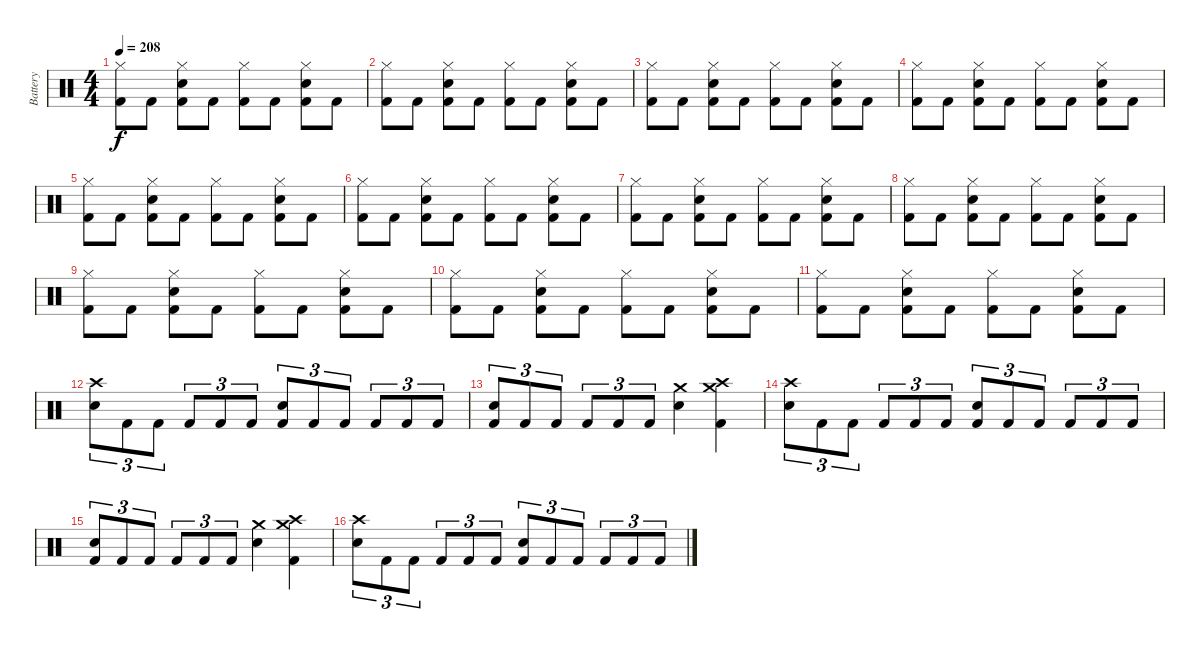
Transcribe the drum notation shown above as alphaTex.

\track ("Battery" "Battery") {instrument percussion}
\staff {score}
\articulation defaults
\ts (4 4)
\tempo 208
\clef neutral
\ks c
("Hi-Hat (closed)" "Kick (hit) 2").8{dy f} "Kick (hit) 2".8 ("Hi-Hat (closed)" "Electric Snare (hit)" "Kick (hit) 2").8 "Kick (hit) 2".8 ("Hi-Hat (closed)" "Kick (hit) 2").8 "Kick (hit) 2".8 ("Hi-Hat (closed)" "Electric Snare (hit)" "Kick (hit) 2").8 "Kick (hit) 2".8 |
("Hi-Hat (closed)" "Kick (hit) 2").8 "Kick (hit) 2".8 ("Hi-Hat (closed)" "Electric Snare (hit)" "Kick (hit) 2").8 "Kick (hit) 2".8 ("Hi-Hat (closed)" "Kick (hit) 2").8 "Kick (hit) 2".8 ("Hi-Hat (closed)" "Electric Snare (hit)" "Kick (hit) 2").8 "Kick (hit) 2".8 |
("Hi-Hat (closed)" "Kick (hit) 2").8 "Kick (hit) 2".8 ("Hi-Hat (closed)" "Electric Snare (hit)" "Kick (hit) 2").8 "Kick (hit) 2".8 ("Hi-Hat (closed)" "Kick (hit) 2").8 "Kick (hit) 2".8 ("Hi-Hat (closed)" "Electric Snare (hit)" "Kick (hit) 2").8 "Kick (hit) 2".8 |
("Hi-Hat (closed)" "Kick (hit) 2").8 "Kick (hit) 2".8 ("Hi-Hat (closed)" "Electric Snare (hit)" "Kick (hit) 2").8 "Kick (hit) 2".8 ("Hi-Hat (closed)" "Kick (hit) 2").8 "Kick (hit) 2".8 ("Hi-Hat (closed)" "Electric Snare (hit)" "Kick (hit) 2").8 "Kick (hit) 2".8 |
("Hi-Hat (closed)" "Kick (hit) 2").8 "Kick (hit) 2".8 ("Hi-Hat (closed)" "Electric Snare (hit)" "Kick (hit) 2").8 "Kick (hit) 2".8 ("Hi-Hat (closed)" "Kick (hit) 2").8 "Kick (hit) 2".8 ("Hi-Hat (closed)" "Electric Snare (hit)" "Kick (hit) 2").8 "Kick (hit) 2".8 |
("Hi-Hat (closed)" "Kick (hit) 2").8 "Kick (hit) 2".8 ("Hi-Hat (closed)" "Electric Snare (hit)" "Kick (hit) 2").8 "Kick (hit) 2".8 ("Hi-Hat (closed)" "Kick (hit) 2").8 "Kick (hit) 2".8 ("Hi-Hat (closed)" "Electric Snare (hit)" "Kick (hit) 2").8 "Kick (hit) 2".8 |
("Hi-Hat (closed)" "Kick (hit) 2").8 "Kick (hit) 2".8 ("Hi-Hat (closed)" "Electric Snare (hit)" "Kick (hit) 2").8 "Kick (hit) 2".8 ("Hi-Hat (closed)" "Kick (hit) 2").8 "Kick (hit) 2".8 ("Hi-Hat (closed)" "Electric Snare (hit)" "Kick (hit) 2").8 "Kick (hit) 2".8 |
("Hi-Hat (closed)" "Kick (hit) 2").8 "Kick (hit) 2".8 ("Hi-Hat (closed)" "Electric Snare (hit)" "Kick (hit) 2").8 "Kick (hit) 2".8 ("Hi-Hat (closed)" "Kick (hit) 2").8 "Kick (hit) 2".8 ("Hi-Hat (closed)" "Electric Snare (hit)" "Kick (hit) 2").8 "Kick (hit) 2".8 |
("Hi-Hat (closed)" "Kick (hit) 2").8 "Kick (hit) 2".8 ("Hi-Hat (closed)" "Electric Snare (hit)" "Kick (hit) 2").8 "Kick (hit) 2".8 ("Hi-Hat (closed)" "Kick (hit) 2").8 "Kick (hit) 2".8 ("Hi-Hat (closed)" "Electric Snare (hit)" "Kick (hit) 2").8 "Kick (hit) 2".8 |
("Hi-Hat (closed)" "Kick (hit) 2").8 "Kick (hit) 2".8 ("Hi-Hat (closed)" "Electric Snare (hit)" "Kick (hit) 2").8 "Kick (hit) 2".8 ("Hi-Hat (closed)" "Kick (hit) 2").8 "Kick (hit) 2".8 ("Hi-Hat (closed)" "Electric Snare (hit)" "Kick (hit) 2").8 "Kick (hit) 2".8 |
("Hi-Hat (closed)" "Kick (hit) 2").8 "Kick (hit) 2".8 ("Hi-Hat (closed)" "Electric Snare (hit)" "Kick (hit) 2").8 "Kick (hit) 2".8 ("Hi-Hat (closed)" "Kick (hit) 2").8 "Kick (hit) 2".8 ("Hi-Hat (closed)" "Electric Snare (hit)" "Kick (hit) 2").8 "Kick (hit) 2".8 |
("Crash high (hit)" "Electric Snare (hit)").8{tu (3 2)} "Kick (hit) 2".8{tu (3 2)} "Kick (hit) 2".8{tu (3 2)} "Kick (hit) 2".8{tu (3 2)} "Kick (hit) 2".8{tu (3 2)} "Kick (hit) 2".8{tu (3 2)} ("Electric Snare (hit)" "Kick (hit) 2").8{tu (3 2)} "Kick (hit) 2".8{tu (3 2)} "Kick (hit) 2".8{tu (3 2)} "Kick (hit) 2".8{tu (3 2)} "Kick (hit) 2".8{tu (3 2)} "Kick (hit) 2".8{tu (3 2)} |
("Electric Snare (hit)" "Kick (hit) 2").8{tu (3 2)} "Kick (hit) 2".8{tu (3 2)} "Kick (hit) 2".8{tu (3 2)} "Kick (hit) 2".8{tu (3 2)} "Kick (hit) 2".8{tu (3 2)} "Kick (hit) 2".8{tu (3 2)} ("Crash medium (hit)" "Electric Snare (hit)").4 ("Crash high (hit)" "Crash medium (hit)" "Kick (hit) 2").4 |
("Crash high (hit)" "Electric Snare (hit)").8{tu (3 2)} "Kick (hit) 2".8{tu (3 2)} "Kick (hit) 2".8{tu (3 2)} "Kick (hit) 2".8{tu (3 2)} "Kick (hit) 2".8{tu (3 2)} "Kick (hit) 2".8{tu (3 2)} ("Electric Snare (hit)" "Kick (hit) 2").8{tu (3 2)} "Kick (hit) 2".8{tu (3 2)} "Kick (hit) 2".8{tu (3 2)} "Kick (hit) 2".8{tu (3 2)} "Kick (hit) 2".8{tu (3 2)} "Kick (hit) 2".8{tu (3 2)} |
("Electric Snare (hit)" "Kick (hit) 2").8{tu (3 2)} "Kick (hit) 2".8{tu (3 2)} "Kick (hit) 2".8{tu (3 2)} "Kick (hit) 2".8{tu (3 2)} "Kick (hit) 2".8{tu (3 2)} "Kick (hit) 2".8{tu (3 2)} ("Crash medium (hit)" "Electric Snare (hit)").4 ("Crash high (hit)" "Crash medium (hit)" "Kick (hit) 2").4 |
("Crash high (hit)" "Electric Snare (hit)").8{tu (3 2)} "Kick (hit) 2".8{tu (3 2)} "Kick (hit) 2".8{tu (3 2)} "Kick (hit) 2".8{tu (3 2)} "Kick (hit) 2".8{tu (3 2)} "Kick (hit) 2".8{tu (3 2)} ("Electric Snare (hit)" "Kick (hit) 2").8{tu (3 2)} "Kick (hit) 2".8{tu (3 2)} "Kick (hit) 2".8{tu (3 2)} "Kick (hit) 2".8{tu (3 2)} "Kick (hit) 2".8{tu (3 2)} "Kick (hit) 2".8{tu (3 2)}
